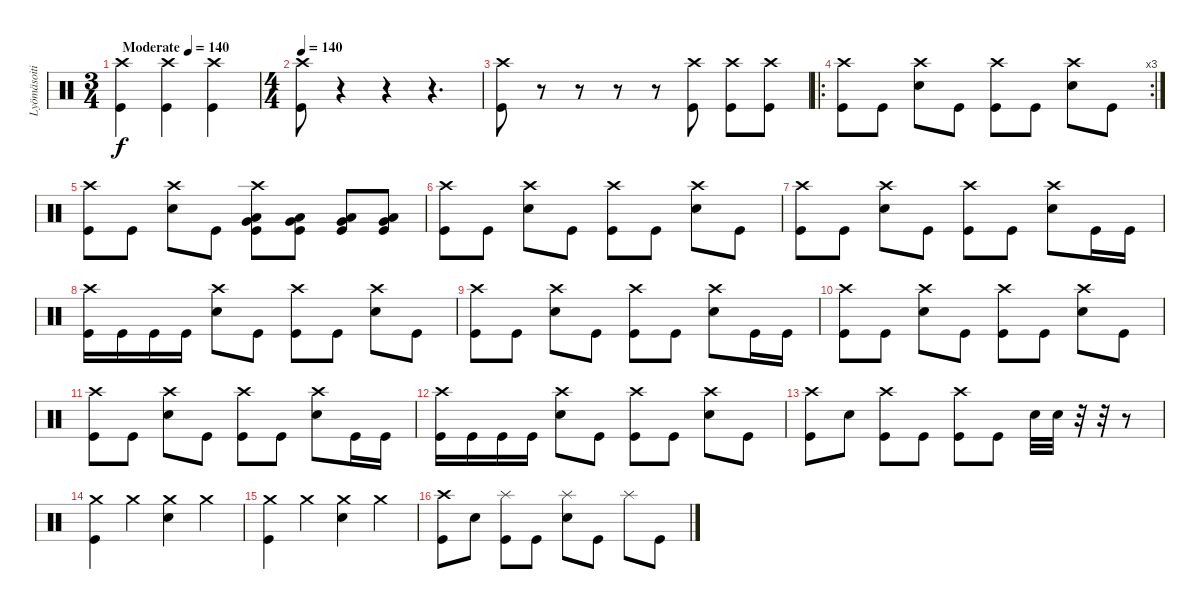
\track ("Lyömäsoitin" "Lyömäsoiti") {instrument percussion}
\staff {score}
\articulation defaults
\ts (3 4)
\tempo (140 "Moderate")
\tempo 40
\tempo (140 "Moderate")
\clef neutral
\ks c
("Crash high (hit)" "Kick (hit)").4{dy f} ("Crash high (hit)" "Kick (hit)").4 ("Crash high (hit)" "Kick (hit)").4 |
\ts (4 4)
\tempo 135
\tempo 140
("Crash high (hit)" "Kick (hit)").8 r.4 r.4 r.4{d} |
("Crash high (hit)" "Kick (hit)").8 r.8 r.8 r.8 r.8 ("Crash high (hit)" "Kick (hit)").8 ("Crash high (hit)" "Kick (hit)").8 ("Crash high (hit)" "Kick (hit)").8 |
\ro
\rc 3
("Crash high (hit)" "Kick (hit)").8 "Kick (hit)".8 ("Crash high (hit)" "Electric Snare (hit)").8 "Kick (hit)".8 ("Crash high (hit)" "Kick (hit)").8 "Kick (hit)".8 ("Crash high (hit)" "Electric Snare (hit)").8 "Kick (hit)".8 |
("Crash high (hit)" "Kick (hit)").8 "Kick (hit)".8 ("Crash high (hit)" "Electric Snare (hit)").8 "Kick (hit)".8 ("Crash high (hit)" "Very Low Tom (hit)" "Low Floor Tom (hit)" "Kick (hit)").8 ("Very Low Tom (hit)" "Low Floor Tom (hit)" "Kick (hit)").8 ("Very Low Tom (hit)" "Low Floor Tom (hit)" "Kick (hit)").8 ("Very Low Tom (hit)" "Low Floor Tom (hit)" "Kick (hit)").8 |
("Crash high (hit)" "Kick (hit)").8 "Kick (hit)".8 ("Crash high (hit)" "Electric Snare (hit)").8 "Kick (hit)".8 ("Crash high (hit)" "Kick (hit)").8 "Kick (hit)".8 ("Crash high (hit)" "Electric Snare (hit)").8 "Kick (hit)".8 |
("Crash high (hit)" "Kick (hit)").8 "Kick (hit)".8 ("Crash high (hit)" "Electric Snare (hit)").8 "Kick (hit)".8 ("Crash high (hit)" "Kick (hit)").8 "Kick (hit)".8 ("Crash high (hit)" "Electric Snare (hit)").8 "Kick (hit)".16 "Kick (hit)".16 |
("Crash high (hit)" "Kick (hit)").16 "Kick (hit)".16 "Kick (hit)".16 "Kick (hit)".16 ("Crash high (hit)" "Electric Snare (hit)").8 "Kick (hit)".8 ("Crash high (hit)" "Kick (hit)").8 "Kick (hit)".8 ("Crash high (hit)" "Electric Snare (hit)").8 "Kick (hit)".8 |
("Crash high (hit)" "Kick (hit)").8 "Kick (hit)".8 ("Crash high (hit)" "Electric Snare (hit)").8 "Kick (hit)".8 ("Crash high (hit)" "Kick (hit)").8 "Kick (hit)".8 ("Crash high (hit)" "Electric Snare (hit)").8 "Kick (hit)".16 "Kick (hit)".16 |
("Crash high (hit)" "Kick (hit)").8 "Kick (hit)".8 ("Crash high (hit)" "Electric Snare (hit)").8 "Kick (hit)".8 ("Crash high (hit)" "Kick (hit)").8 "Kick (hit)".8 ("Crash high (hit)" "Electric Snare (hit)").8 "Kick (hit)".8 |
("Crash high (hit)" "Kick (hit)").8 "Kick (hit)".8 ("Crash high (hit)" "Electric Snare (hit)").8 "Kick (hit)".8 ("Crash high (hit)" "Kick (hit)").8 "Kick (hit)".8 ("Crash high (hit)" "Electric Snare (hit)").8 "Kick (hit)".16 "Kick (hit)".16 |
("Crash high (hit)" "Kick (hit)").16 "Kick (hit)".16 "Kick (hit)".16 "Kick (hit)".16 ("Crash high (hit)" "Electric Snare (hit)").8 "Kick (hit)".8 ("Crash high (hit)" "Kick (hit)").8 "Kick (hit)".8 ("Crash high (hit)" "Electric Snare (hit)").8 "Kick (hit)".8 |
("Crash high (hit)" "Kick (hit)").8 "Electric Snare (hit)".8 ("Crash high (hit)" "Kick (hit)").8 "Kick (hit)".8 ("Crash high (hit)" "Kick (hit)").8 "Kick (hit)".8 "Electric Snare (hit)".32 "Electric Snare (hit)".32 r.32 r.32 r.8 |
("Crash medium (hit)" "Kick (hit)").4 "Crash medium (hit)".4 ("Crash medium (hit)" "Electric Snare (hit)").4 "Crash medium (hit)".4 |
("Crash medium (hit)" "Kick (hit)").4 "Crash medium (hit)".4 ("Crash medium (hit)" "Electric Snare (hit)").4 "Crash medium (hit)".4 |
("Crash high (hit)" "Kick (hit)").8 "Electric Snare (hit)".8 ("Splash (hit)" "Kick (hit)").8 "Kick (hit)".8 ("Splash (hit)" "Electric Snare (hit)").8 "Kick (hit)".8 "Splash (hit)".8 "Kick (hit)".8
